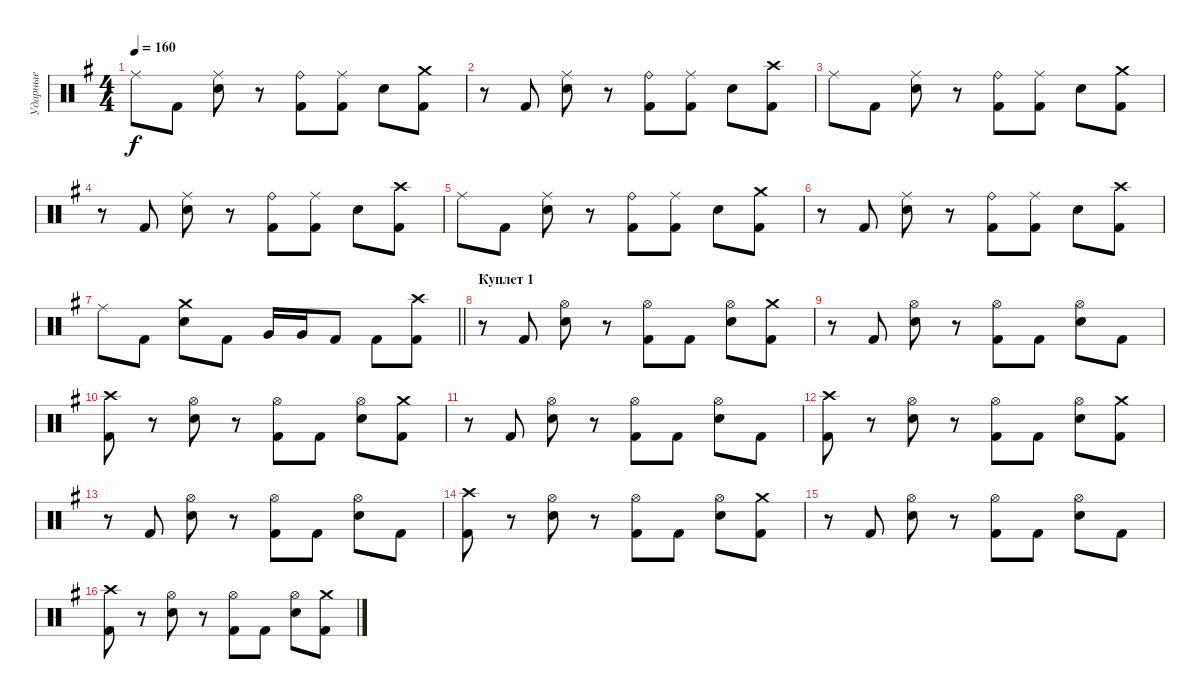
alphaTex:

\track ("Ударные" "Ударные") {instrument percussion}
\staff {score}
\articulation defaults
\ts (4 4)
\tempo 160
\clef neutral
\ks eminor "Ride (middle)".8{dy f} "Kick (hit) 2".8
("Ride (middle)" "Electric Snare (hit)").8 r.8 ("Ride (bell)" "Kick (hit) 2").8 ("Ride (middle)" "Kick (hit) 2").8 "Electric Snare (hit)".8 ("Crash medium (hit)" "Kick (hit) 2").8 |
r.8 "Kick (hit) 2".8 ("Ride (middle)" "Electric Snare (hit)").8 r.8 ("Ride (bell)" "Kick (hit) 2").8 ("Ride (middle)" "Kick (hit) 2").8 "Electric Snare (hit)".8 ("Crash high (hit)" "Kick (hit) 2").8 |
"Ride (middle)".8 "Kick (hit) 2".8 ("Ride (middle)" "Electric Snare (hit)").8 r.8 ("Ride (bell)" "Kick (hit) 2").8 ("Ride (middle)" "Kick (hit) 2").8 "Electric Snare (hit)".8 ("Crash medium (hit)" "Kick (hit) 2").8 |
r.8 "Kick (hit) 2".8 ("Ride (middle)" "Electric Snare (hit)").8 r.8 ("Ride (bell)" "Kick (hit) 2").8 ("Ride (middle)" "Kick (hit) 2").8 "Electric Snare (hit)".8 ("Crash high (hit)" "Kick (hit) 2").8 |
"Ride (middle)".8 "Kick (hit) 2".8 ("Ride (middle)" "Electric Snare (hit)").8 r.8 ("Ride (bell)" "Kick (hit) 2").8 ("Ride (middle)" "Kick (hit) 2").8 "Electric Snare (hit)".8 ("Crash medium (hit)" "Kick (hit) 2").8 |
r.8 "Kick (hit) 2".8 ("Ride (middle)" "Electric Snare (hit)").8 r.8 ("Ride (bell)" "Kick (hit) 2").8 ("Ride (middle)" "Kick (hit) 2").8 "Electric Snare (hit)".8 ("Crash high (hit)" "Kick (hit) 2").8 |
\barLineRight lightlight "Ride (middle)".8 "Kick (hit) 2".8
("Crash medium (hit)" "Electric Snare (hit)").8 "Kick (hit) 2".8 "Very Low Tom (hit)".16 "Very Low Tom (hit)".16 "Kick (hit) 2".8 "Kick (hit) 2".8 ("Crash high (hit)" "Kick (hit) 2").8 |
\section ("" "Куплет 1")
r.8 "Kick (hit) 2".8 ("Hi-Hat (open)" "Electric Snare (hit)").8 r.8 ("Hi-Hat (open)" "Kick (hit) 2").8 "Kick (hit) 2".8 ("Hi-Hat (open)" "Electric Snare (hit)").8 ("Crash medium (hit)" "Kick (hit) 2").8 |
r.8 "Kick (hit) 2".8 ("Hi-Hat (open)" "Electric Snare (hit)").8 r.8 ("Hi-Hat (open)" "Kick (hit) 2").8 "Kick (hit) 2".8 ("Hi-Hat (open)" "Electric Snare (hit)").8 "Kick (hit) 2".8 |
("Crash high (hit)" "Kick (hit) 2").8 r.8 ("Hi-Hat (open)" "Electric Snare (hit)").8 r.8 ("Hi-Hat (open)" "Kick (hit) 2").8 "Kick (hit) 2".8 ("Hi-Hat (open)" "Electric Snare (hit)").8 ("Crash medium (hit)" "Kick (hit) 2").8 |
r.8 "Kick (hit) 2".8 ("Hi-Hat (open)" "Electric Snare (hit)").8 r.8 ("Hi-Hat (open)" "Kick (hit) 2").8 "Kick (hit) 2".8 ("Hi-Hat (open)" "Electric Snare (hit)").8 "Kick (hit) 2".8 |
("Crash high (hit)" "Kick (hit) 2").8 r.8 ("Hi-Hat (open)" "Electric Snare (hit)").8 r.8 ("Hi-Hat (open)" "Kick (hit) 2").8 "Kick (hit) 2".8 ("Hi-Hat (open)" "Electric Snare (hit)").8 ("Crash medium (hit)" "Kick (hit) 2").8 |
r.8 "Kick (hit) 2".8 ("Hi-Hat (open)" "Electric Snare (hit)").8 r.8 ("Hi-Hat (open)" "Kick (hit) 2").8 "Kick (hit) 2".8 ("Hi-Hat (open)" "Electric Snare (hit)").8 "Kick (hit) 2".8 |
("Crash high (hit)" "Kick (hit) 2").8 r.8 ("Hi-Hat (open)" "Electric Snare (hit)").8 r.8 ("Hi-Hat (open)" "Kick (hit) 2").8 "Kick (hit) 2".8 ("Hi-Hat (open)" "Electric Snare (hit)").8 ("Crash medium (hit)" "Kick (hit) 2").8 |
r.8 "Kick (hit) 2".8 ("Hi-Hat (open)" "Electric Snare (hit)").8 r.8 ("Hi-Hat (open)" "Kick (hit) 2").8 "Kick (hit) 2".8 ("Hi-Hat (open)" "Electric Snare (hit)").8 "Kick (hit) 2".8 |
("Crash high (hit)" "Kick (hit) 2").8 r.8 ("Hi-Hat (open)" "Electric Snare (hit)").8 r.8 ("Hi-Hat (open)" "Kick (hit) 2").8 "Kick (hit) 2".8 ("Hi-Hat (open)" "Electric Snare (hit)").8 ("Crash medium (hit)" "Kick (hit) 2").8
